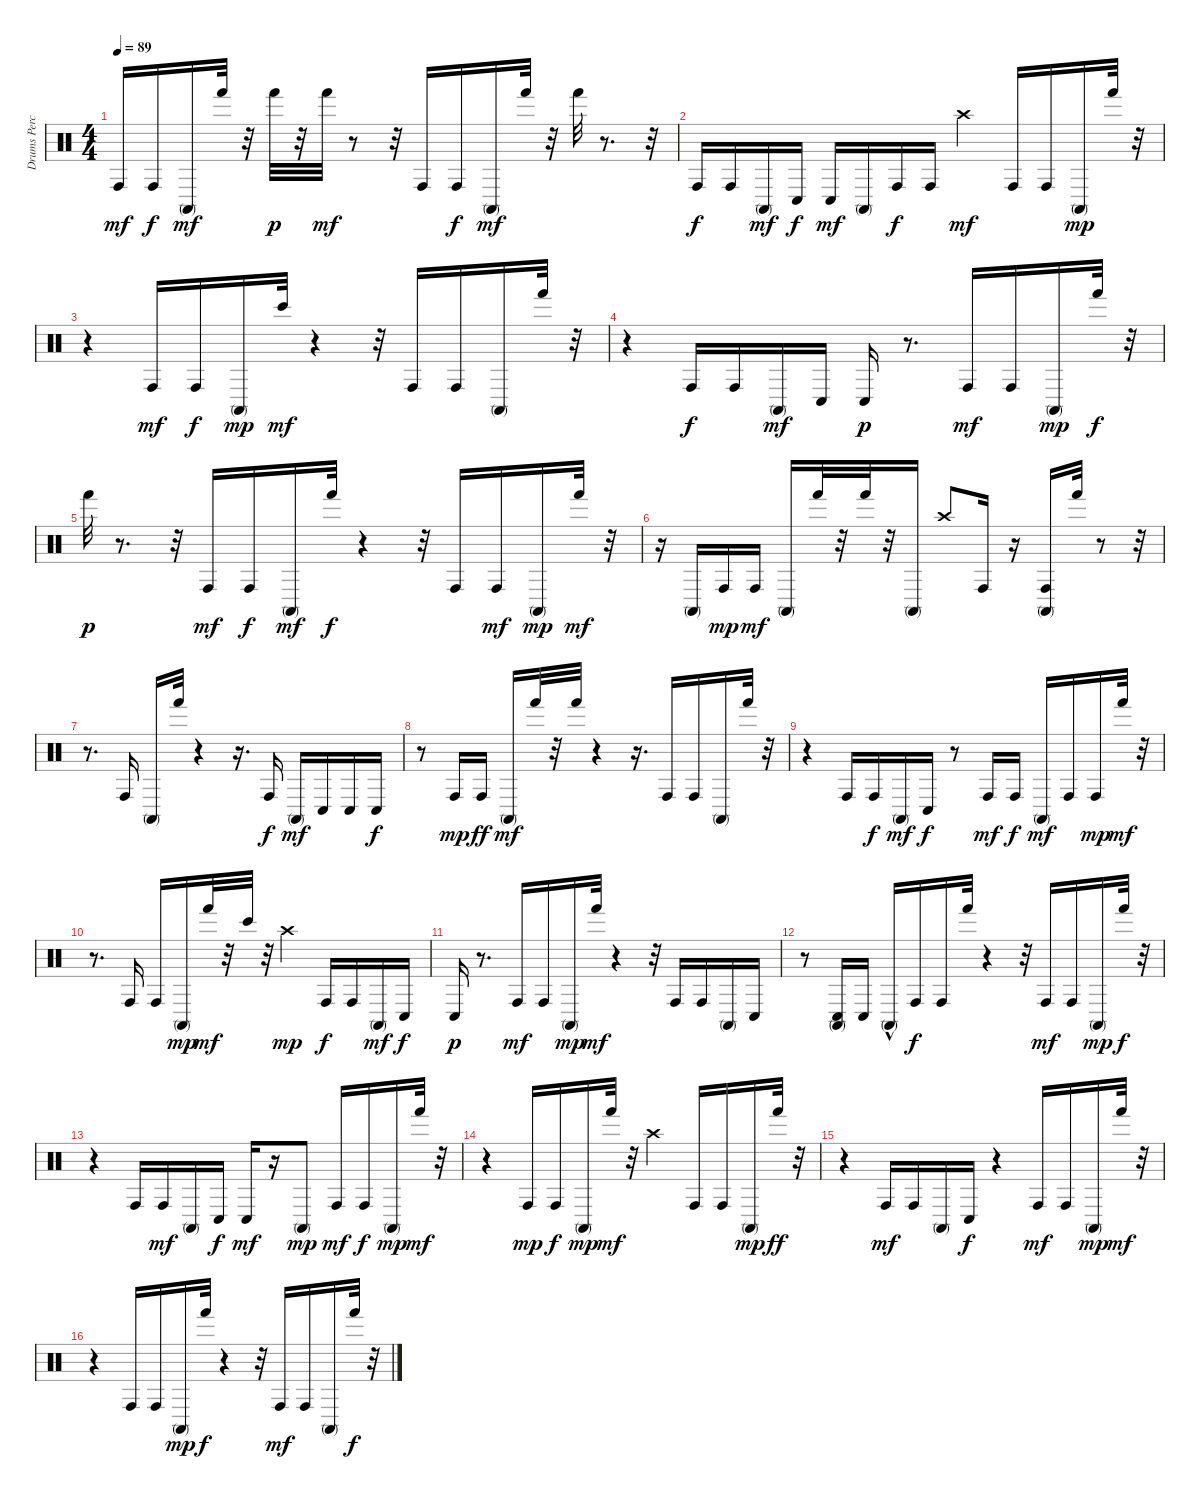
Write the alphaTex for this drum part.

\track ("Drums Percussion" "Drums Perc") {instrument percussion}
\staff {score}
\articulation defaults
\ts (4 4)
\tempo 89
\clef neutral
\ks c "Conga high (hit)".16{dy mf} "Conga high (hit)".16{dy f} "Conga high (mute)".16{dy mf} "Hand (hit)".32
r.32 "Hand (hit)".32{dy p} r.32 "Hand (hit)".32{dy mf} r.8 r.32 "Conga high (hit)".16 "Conga high (hit)".16{dy f} "Conga high (mute)".16{dy mf} "Hand (hit)".32 r.32 "Hand (hit)".32 r.8{d} r.32 |
"Conga high (hit)".16{dy f} "Conga high (hit)".16 "Conga high (mute)".16{dy mf} "Conga low (hit)".16{dy f} "Conga low (hit)".16{dy mf} "Conga high (mute)".16 "Conga high (hit)".16{dy f} "Conga high (hit)".16 "Crash high (hit)".4{dy mf} "Conga high (hit)".16 "Conga high (hit)".16 "Conga high (mute)".16{dy mp} "Hand (hit)".32 r.32 |
r.4 "Conga high (hit)".16{dy mf} "Conga high (hit)".16{dy f} "Conga high (mute)".16{dy mp} "Bongo High (hit)".32{dy mf} r.4 r.32 "Conga high (hit)".16 "Conga high (hit)".16 "Conga high (mute)".16 "Hand (hit)".32 r.32 |
r.4 "Conga high (hit)".16{dy f} "Conga high (hit)".16 "Conga high (mute)".16{dy mf} "Conga low (hit)".16 "Conga low (hit)".16{dy p} r.8{d} "Conga high (hit)".16{dy mf} "Conga high (hit)".16 "Conga high (mute)".16{dy mp} "Hand (hit)".32{dy f} r.32 |
"Hand (hit)".32{dy p} r.8{d} r.32 "Conga high (hit)".16{dy mf} "Conga high (hit)".16{dy f} "Conga high (mute)".16{dy mf} "Hand (hit)".32{dy f} r.4 r.32 "Conga high (hit)".16 "Conga high (hit)".16{dy mf} "Conga high (mute)".16{dy mp} "Hand (hit)".32{dy mf} r.32 |
r.16 "Conga high (mute)".16 "Conga high (hit)".16{dy mp} "Conga high (hit)".16{dy mf} "Conga high (mute)".16 "Hand (hit)".32 r.32 "Hand (hit)".32 r.32 "Conga high (mute)".16 "Crash high (hit)".8 "Conga high (hit)".16 r.16 ("Conga high (hit)" "Conga high (mute)").16 "Hand (hit)".32 r.8 r.32 |
r.8{d} "Conga high (hit)".16 "Conga high (mute)".16 "Hand (hit)".32 r.4 r.16{d} "Conga high (hit)".16{dy f} "Conga high (mute)".16{dy mf} "Conga low (hit)".16 "Conga low (hit)".16 "Conga low (hit)".16{dy f} |
r.8 "Conga high (hit)".16{dy mp} "Conga high (hit)".16{dy ff} "Conga high (mute)".16{dy mf} "Hand (hit)".32 r.32 "Hand (hit)".32 r.4 r.16{d} "Conga high (hit)".16 "Conga high (hit)".16 "Conga high (mute)".16 "Hand (hit)".32 r.32 |
r.4 "Conga high (hit)".16 "Conga high (hit)".16{dy f} "Conga high (mute)".16{dy mf} "Conga low (hit)".16{dy f} r.8 "Conga high (hit)".16{dy mf} "Conga high (hit)".16{dy f} "Conga high (mute)".16{dy mf} "Conga high (hit)".16 "Conga high (hit)".16{dy mp} "Hand (hit)".32{dy mf} r.32 |
r.8{d} "Conga high (hit)".16 "Conga high (hit)".16 "Conga high (mute)".16{dy mp} "Hand (hit)".32{dy mf} r.32 "Bongo High (hit)".32 r.32 "Crash high (hit)".4{dy mp} "Conga high (hit)".16{dy f} "Conga high (hit)".16 "Conga high (mute)".16{dy mf} "Conga low (hit)".16{dy f} |
"Conga low (hit)".16{dy p} r.8{d} "Conga high (hit)".16{dy mf} "Conga high (hit)".16 "Conga high (mute)".16{dy mp} "Hand (hit)".32{dy mf} r.4 r.32 "Conga high (hit)".16 "Conga high (hit)".16 "Conga high (mute)".16 "Conga low (hit)".16 |
r.8 ("Conga high (mute)" "Conga low (hit)").16 "Conga low (hit)".16 "Conga high (mute)"{hac}.16 "Conga high (hit)".16{dy f} "Conga high (hit)".16 "Hand (hit)".32 r.4 r.32 "Conga high (hit)".16{dy mf} "Conga high (hit)".16 "Conga high (mute)".16{dy mp} "Hand (hit)".32{dy f} r.32 |
r.4 "Conga high (hit)".16 "Conga high (hit)".16{dy mf} "Conga high (mute)".16 "Conga low (hit)".16{dy f} "Conga low (hit)".16{dy mf} r.16 "Conga high (mute)".8{dy mp} "Conga high (hit)".16{dy mf} "Conga high (hit)".16{dy f} "Conga high (mute)".16{dy mp} "Hand (hit)".32{dy mf} r.32 |
r.4 "Conga high (hit)".16{dy mp} "Conga high (hit)".16{dy f} "Conga high (mute)".16{dy mp} "Hand (hit)".32{dy mf} r.32 "Crash high (hit)".4 "Conga high (hit)".16 "Conga high (hit)".16 "Conga high (mute)".16{dy mp} "Hand (hit)".32{dy ff} r.32 |
r.4 "Conga high (hit)".16{dy mf} "Conga high (hit)".16 "Conga high (mute)".16 "Conga low (hit)".16{dy f} r.4 "Conga high (hit)".16{dy mf} "Conga high (hit)".16 "Conga high (mute)".16{dy mp} "Hand (hit)".32{dy mf} r.32 |
r.4 "Conga high (hit)".16 "Conga high (hit)".16 "Conga high (mute)".16{dy mp} "Hand (hit)".32{dy f} r.4 r.32 "Conga high (hit)".16{dy mf} "Conga high (hit)".16 "Conga high (mute)".16 "Hand (hit)".32{dy f} r.32
